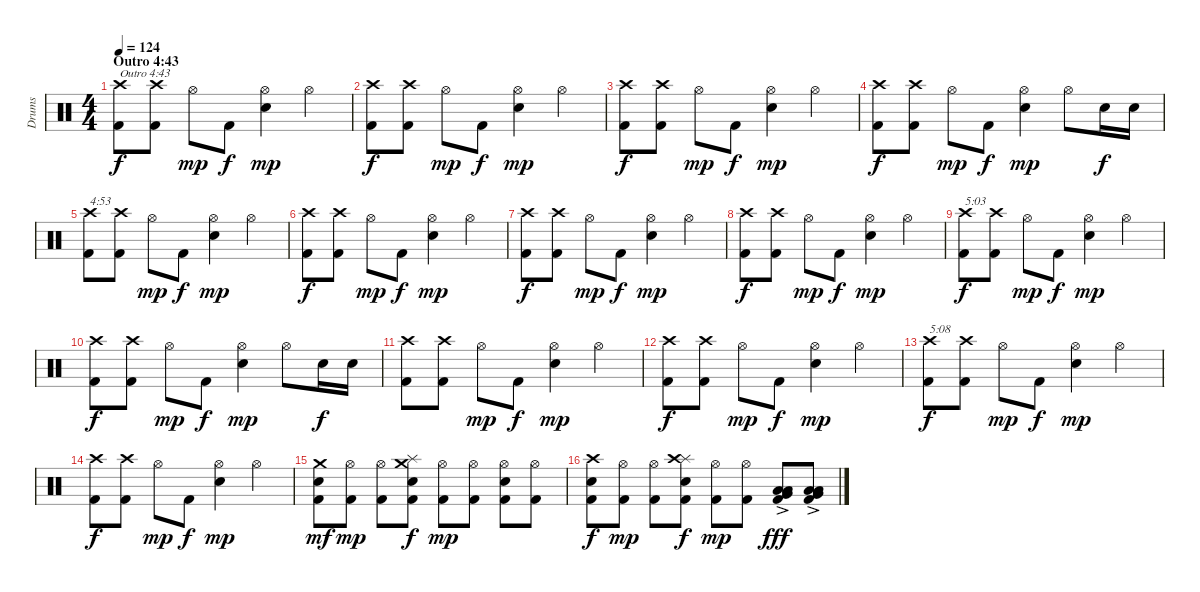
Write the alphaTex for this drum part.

\track ("Drums" "Drums") {instrument percussion}
\staff {score}
\articulation defaults
\ts (4 4)
\section ("" "Outro 4:43")
\tempo 124
\clef neutral
\ks c
("Kick (hit) 2" "Crash high (hit)").8{txt "Outro 4:43" dy f} ("Kick (hit) 2" "Crash high (hit)").8 "Hi-Hat (open)".8{dy mp} "Kick (hit) 2".8{dy f} ("Electric Snare (hit)" "Hi-Hat (open)").4{dy mp} "Hi-Hat (open)".4 |
("Kick (hit) 2" "Crash high (hit)").8{dy f} ("Kick (hit) 2" "Crash high (hit)").8 "Hi-Hat (open)".8{dy mp} "Kick (hit) 2".8{dy f} ("Electric Snare (hit)" "Hi-Hat (open)").4{dy mp} "Hi-Hat (open)".4 |
("Kick (hit) 2" "Crash high (hit)").8{dy f} ("Kick (hit) 2" "Crash high (hit)").8 "Hi-Hat (open)".8{dy mp} "Kick (hit) 2".8{dy f} ("Electric Snare (hit)" "Hi-Hat (open)").4{dy mp} "Hi-Hat (open)".4 |
("Kick (hit) 2" "Crash high (hit)").8{dy f} ("Kick (hit) 2" "Crash high (hit)").8 "Hi-Hat (open)".8{dy mp} "Kick (hit) 2".8{dy f} ("Electric Snare (hit)" "Hi-Hat (open)").4{dy mp} "Hi-Hat (open)".8 "Electric Snare (hit)".16{dy f} "Electric Snare (hit)".16 |
("Kick (hit) 2" "Crash high (hit)").8{txt "4:53"} ("Kick (hit) 2" "Crash high (hit)").8 "Hi-Hat (open)".8{dy mp} "Kick (hit) 2".8{dy f} ("Electric Snare (hit)" "Hi-Hat (open)").4{dy mp} "Hi-Hat (open)".4 |
("Kick (hit) 2" "Crash high (hit)").8{dy f} ("Kick (hit) 2" "Crash high (hit)").8 "Hi-Hat (open)".8{dy mp} "Kick (hit) 2".8{dy f} ("Electric Snare (hit)" "Hi-Hat (open)").4{dy mp} "Hi-Hat (open)".4 |
("Kick (hit) 2" "Crash high (hit)").8{dy f} ("Kick (hit) 2" "Crash high (hit)").8 "Hi-Hat (open)".8{dy mp} "Kick (hit) 2".8{dy f} ("Electric Snare (hit)" "Hi-Hat (open)").4{dy mp} "Hi-Hat (open)".4 |
("Kick (hit) 2" "Crash high (hit)").8{dy f} ("Kick (hit) 2" "Crash high (hit)").8 "Hi-Hat (open)".8{dy mp} "Kick (hit) 2".8{dy f} ("Electric Snare (hit)" "Hi-Hat (open)").4{dy mp} "Hi-Hat (open)".4 |
("Kick (hit) 2" "Crash high (hit)").8{txt "5:03" dy f} ("Kick (hit) 2" "Crash high (hit)").8 "Hi-Hat (open)".8{dy mp} "Kick (hit) 2".8{dy f} ("Electric Snare (hit)" "Hi-Hat (open)").4{dy mp} "Hi-Hat (open)".4 |
("Kick (hit) 2" "Crash high (hit)").8{dy f} ("Kick (hit) 2" "Crash high (hit)").8 "Hi-Hat (open)".8{dy mp} "Kick (hit) 2".8{dy f} ("Electric Snare (hit)" "Hi-Hat (open)").4{dy mp} "Hi-Hat (open)".8 "Electric Snare (hit)".16{dy f} "Electric Snare (hit)".16 |
("Kick (hit) 2" "Crash high (hit)").8 ("Kick (hit) 2" "Crash high (hit)").8 "Hi-Hat (open)".8{dy mp} "Kick (hit) 2".8{dy f} ("Electric Snare (hit)" "Hi-Hat (open)").4{dy mp} "Hi-Hat (open)".4 |
("Kick (hit) 2" "Crash high (hit)").8{dy f} ("Kick (hit) 2" "Crash high (hit)").8 "Hi-Hat (open)".8{dy mp} "Kick (hit) 2".8{dy f} ("Electric Snare (hit)" "Hi-Hat (open)").4{dy mp} "Hi-Hat (open)".4 |
("Kick (hit) 2" "Crash high (hit)").8{txt "5:08" dy f} ("Kick (hit) 2" "Crash high (hit)").8 "Hi-Hat (open)".8{dy mp} "Kick (hit) 2".8{dy f} ("Electric Snare (hit)" "Hi-Hat (open)").4{dy mp} "Hi-Hat (open)".4 |
("Kick (hit) 2" "Crash high (hit)").8{dy f} ("Kick (hit) 2" "Crash high (hit)").8 "Hi-Hat (open)".8{dy mp} "Kick (hit) 2".8{dy f} ("Electric Snare (hit)" "Hi-Hat (open)").4{dy mp} "Hi-Hat (open)".4 |
("Kick (hit) 2" "Electric Snare (hit)" "Crash medium (hit)").8{dy mf} ("Kick (hit) 2" "Hi-Hat (open)").8{dy mp} ("Kick (hit) 2" "Hi-Hat (open)").8 ("Kick (hit) 2" "Electric Snare (hit)" "Splash (hit)" "Crash medium (hit)").8{dy f} ("Kick (hit) 2" "Hi-Hat (open)").8{dy mp} ("Kick (hit) 2" "Hi-Hat (open)").8 ("Kick (hit) 2" "Electric Snare (hit)" "Hi-Hat (open)").8 ("Kick (hit) 2" "Hi-Hat (open)").8 |
("Kick (hit) 2" "Electric Snare (hit)" "Crash high (hit)").8{dy f} ("Kick (hit) 2" "Hi-Hat (open)").8{dy mp} ("Kick (hit) 2" "Hi-Hat (open)").8 ("Kick (hit) 2" "Electric Snare (hit)" "Splash (hit)" "Crash high (hit)").8{dy f} ("Kick (hit) 2" "Hi-Hat (open)").8{dy mp} ("Kick (hit) 2" "Hi-Hat (open)").8 ("Kick (hit) 2" "Low Tom (hit)"{ac} "Very Low Tom (hit)"{ac} "Low Floor Tom (hit)").8{dy fff} ("Kick (hit) 2" "Low Tom (hit)"{ac} "Very Low Tom (hit)"{ac} "Low Floor Tom (hit)").8
